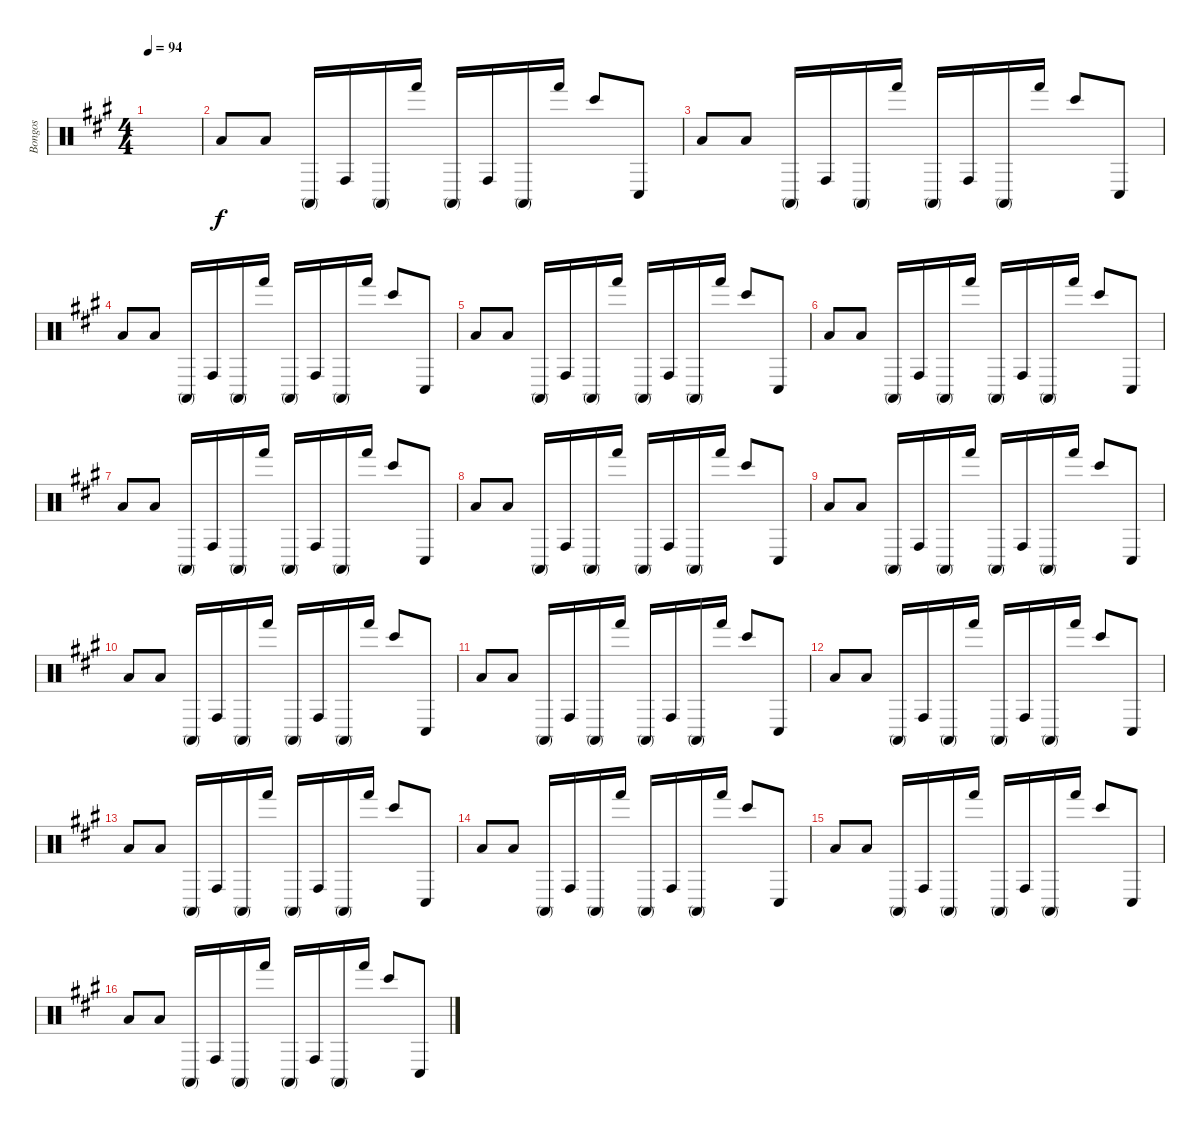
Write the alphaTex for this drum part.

\track ("Bongos" "Bongos") {instrument percussion}
\staff {score}
\articulation defaults
\ts (4 4)
\tempo 94
\clef neutral
\ks a
|
"Low Floor Tom (hit)".8{volume 8} "Low Floor Tom (hit)".8 "Conga high (mute)".16 "Conga high (hit)".16 "Conga high (mute)".16 "Hand (hit)".16 "Conga high (mute)".16 "Conga high (hit)".16 "Conga high (mute)".16 "Hand (hit)".16 "Bongo High (hit)".8 "Conga low (hit)".8 |
"Low Floor Tom (hit)".8 "Low Floor Tom (hit)".8 "Conga high (mute)".16 "Conga high (hit)".16 "Conga high (mute)".16 "Hand (hit)".16 "Conga high (mute)".16 "Conga high (hit)".16 "Conga high (mute)".16 "Hand (hit)".16 "Bongo High (hit)".8 "Conga low (hit)".8 |
"Low Floor Tom (hit)".8 "Low Floor Tom (hit)".8 "Conga high (mute)".16 "Conga high (hit)".16 "Conga high (mute)".16 "Hand (hit)".16 "Conga high (mute)".16 "Conga high (hit)".16 "Conga high (mute)".16 "Hand (hit)".16 "Bongo High (hit)".8 "Conga low (hit)".8 |
"Low Floor Tom (hit)".8 "Low Floor Tom (hit)".8 "Conga high (mute)".16 "Conga high (hit)".16 "Conga high (mute)".16 "Hand (hit)".16 "Conga high (mute)".16 "Conga high (hit)".16 "Conga high (mute)".16 "Hand (hit)".16 "Bongo High (hit)".8 "Conga low (hit)".8 |
"Low Floor Tom (hit)".8 "Low Floor Tom (hit)".8 "Conga high (mute)".16 "Conga high (hit)".16 "Conga high (mute)".16 "Hand (hit)".16 "Conga high (mute)".16 "Conga high (hit)".16 "Conga high (mute)".16 "Hand (hit)".16 "Bongo High (hit)".8 "Conga low (hit)".8 |
"Low Floor Tom (hit)".8 "Low Floor Tom (hit)".8 "Conga high (mute)".16 "Conga high (hit)".16 "Conga high (mute)".16 "Hand (hit)".16 "Conga high (mute)".16 "Conga high (hit)".16 "Conga high (mute)".16 "Hand (hit)".16 "Bongo High (hit)".8 "Conga low (hit)".8 |
"Low Floor Tom (hit)".8 "Low Floor Tom (hit)".8 "Conga high (mute)".16 "Conga high (hit)".16 "Conga high (mute)".16 "Hand (hit)".16 "Conga high (mute)".16 "Conga high (hit)".16 "Conga high (mute)".16 "Hand (hit)".16 "Bongo High (hit)".8 "Conga low (hit)".8 |
"Low Floor Tom (hit)".8 "Low Floor Tom (hit)".8 "Conga high (mute)".16 "Conga high (hit)".16 "Conga high (mute)".16 "Hand (hit)".16 "Conga high (mute)".16 "Conga high (hit)".16 "Conga high (mute)".16 "Hand (hit)".16 "Bongo High (hit)".8 "Conga low (hit)".8 |
"Low Floor Tom (hit)".8 "Low Floor Tom (hit)".8 "Conga high (mute)".16 "Conga high (hit)".16 "Conga high (mute)".16 "Hand (hit)".16 "Conga high (mute)".16 "Conga high (hit)".16 "Conga high (mute)".16 "Hand (hit)".16 "Bongo High (hit)".8 "Conga low (hit)".8 |
"Low Floor Tom (hit)".8{volume 8} "Low Floor Tom (hit)".8 "Conga high (mute)".16 "Conga high (hit)".16 "Conga high (mute)".16 "Hand (hit)".16 "Conga high (mute)".16 "Conga high (hit)".16 "Conga high (mute)".16 "Hand (hit)".16 "Bongo High (hit)".8 "Conga low (hit)".8 |
"Low Floor Tom (hit)".8 "Low Floor Tom (hit)".8 "Conga high (mute)".16 "Conga high (hit)".16 "Conga high (mute)".16 "Hand (hit)".16 "Conga high (mute)".16 "Conga high (hit)".16 "Conga high (mute)".16 "Hand (hit)".16 "Bongo High (hit)".8 "Conga low (hit)".8 |
"Low Floor Tom (hit)".8 "Low Floor Tom (hit)".8 "Conga high (mute)".16 "Conga high (hit)".16 "Conga high (mute)".16 "Hand (hit)".16 "Conga high (mute)".16 "Conga high (hit)".16 "Conga high (mute)".16 "Hand (hit)".16 "Bongo High (hit)".8 "Conga low (hit)".8 |
"Low Floor Tom (hit)".8 "Low Floor Tom (hit)".8 "Conga high (mute)".16 "Conga high (hit)".16 "Conga high (mute)".16 "Hand (hit)".16 "Conga high (mute)".16 "Conga high (hit)".16 "Conga high (mute)".16 "Hand (hit)".16 "Bongo High (hit)".8 "Conga low (hit)".8 |
"Low Floor Tom (hit)".8 "Low Floor Tom (hit)".8 "Conga high (mute)".16 "Conga high (hit)".16 "Conga high (mute)".16 "Hand (hit)".16 "Conga high (mute)".16 "Conga high (hit)".16 "Conga high (mute)".16 "Hand (hit)".16 "Bongo High (hit)".8 "Conga low (hit)".8 |
"Low Floor Tom (hit)".8 "Low Floor Tom (hit)".8 "Conga high (mute)".16 "Conga high (hit)".16 "Conga high (mute)".16 "Hand (hit)".16 "Conga high (mute)".16 "Conga high (hit)".16 "Conga high (mute)".16 "Hand (hit)".16 "Bongo High (hit)".8 "Conga low (hit)".8
